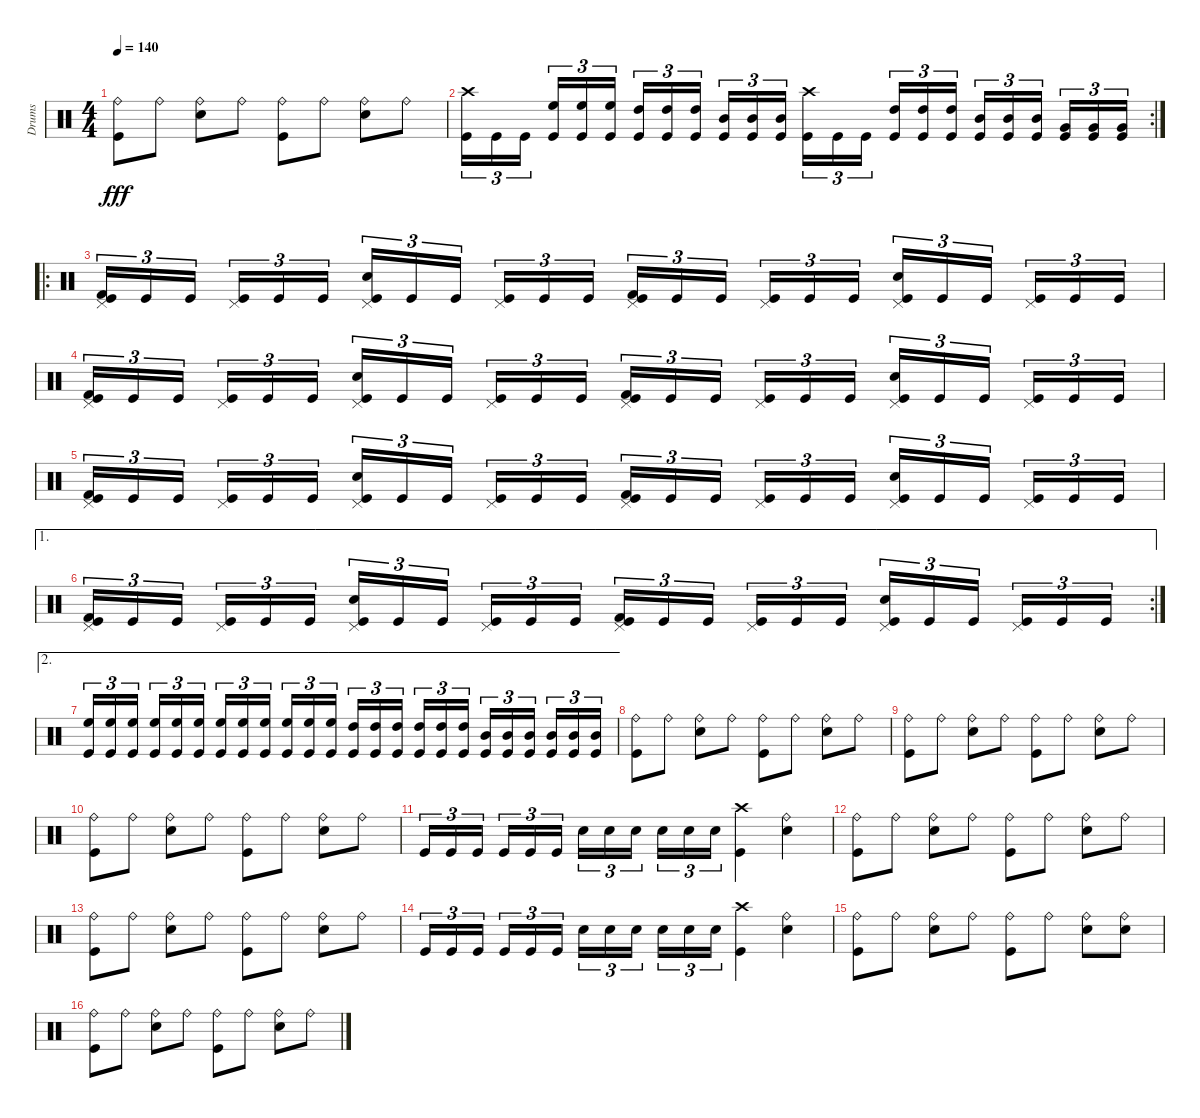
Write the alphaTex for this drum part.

\track ("Drums" "Drums") {instrument percussion}
\staff {score}
\articulation defaults
\ts (4 4)
\tempo 140
\clef neutral
\ks c
("Ride (bell)" "Kick (hit)").8{dy fff} "Ride (bell)".8 ("Ride (bell)" "Snare (hit) 2").8 "Ride (bell)".8 ("Ride (bell)" "Kick (hit)").8 "Ride (bell)".8 ("Ride (bell)" "Snare (hit) 2").8 "Ride (bell)".8 |
\rc 2
("Kick (hit)" "Crash high (hit)").16{tu (3 2)} "Kick (hit)".16{tu (3 2)} "Kick (hit)".16{tu (3 2)} ("Kick (hit)" "High Floor Tom (hit)").16{tu (3 2)} ("Kick (hit)" "High Floor Tom (hit)").16{tu (3 2)} ("Kick (hit)" "High Floor Tom (hit)").16{tu (3 2)} ("Kick (hit)" "High Tom (hit)").16{tu (3 2)} ("Kick (hit)" "High Tom (hit)").16{tu (3 2)} ("Kick (hit)" "High Tom (hit)").16{tu (3 2)} ("Kick (hit)" "Mid Tom (hit)").16{tu (3 2)} ("Kick (hit)" "Mid Tom (hit)").16{tu (3 2)} ("Kick (hit)" "Mid Tom (hit)").16{tu (3 2)} ("Kick (hit)" "Crash high (hit)").16{tu (3 2)} "Kick (hit)".16{tu (3 2)} "Kick (hit)".16{tu (3 2)} ("Kick (hit)" "High Tom (hit)").16{tu (3 2)} ("Kick (hit)" "High Tom (hit)").16{tu (3 2)} ("Kick (hit)" "High Tom (hit)").16{tu (3 2)} ("Kick (hit)" "Mid Tom (hit)").16{tu (3 2)} ("Kick (hit)" "Mid Tom (hit)").16{tu (3 2)} ("Kick (hit)" "Mid Tom (hit)").16{tu (3 2)} ("Kick (hit)" "Very Low Tom (hit)").16{tu (3 2)} ("Kick (hit)" "Very Low Tom (hit)").16{tu (3 2)} ("Kick (hit)" "Very Low Tom (hit)").16{tu (3 2)} |
\ro
("Kick (hit)" "Kick (hit) 2" "Pedal Hi-Hat (hit)").16{tu (3 2)} "Kick (hit)".16{tu (3 2)} "Kick (hit)".16{tu (3 2)} ("Kick (hit)" "Pedal Hi-Hat (hit)").16{tu (3 2)} "Kick (hit)".16{tu (3 2)} "Kick (hit)".16{tu (3 2)} ("Kick (hit)" "Snare (hit) 2" "Pedal Hi-Hat (hit)").16{tu (3 2)} "Kick (hit)".16{tu (3 2)} "Kick (hit)".16{tu (3 2)} ("Kick (hit)" "Pedal Hi-Hat (hit)").16{tu (3 2)} "Kick (hit)".16{tu (3 2)} "Kick (hit)".16{tu (3 2)} ("Kick (hit)" "Kick (hit) 2" "Pedal Hi-Hat (hit)").16{tu (3 2)} "Kick (hit)".16{tu (3 2)} "Kick (hit)".16{tu (3 2)} ("Kick (hit)" "Pedal Hi-Hat (hit)").16{tu (3 2)} "Kick (hit)".16{tu (3 2)} "Kick (hit)".16{tu (3 2)} ("Kick (hit)" "Snare (hit) 2" "Pedal Hi-Hat (hit)").16{tu (3 2)} "Kick (hit)".16{tu (3 2)} "Kick (hit)".16{tu (3 2)} ("Kick (hit)" "Pedal Hi-Hat (hit)").16{tu (3 2)} "Kick (hit)".16{tu (3 2)} "Kick (hit)".16{tu (3 2)} |
("Kick (hit)" "Kick (hit) 2" "Pedal Hi-Hat (hit)").16{tu (3 2)} "Kick (hit)".16{tu (3 2)} "Kick (hit)".16{tu (3 2)} ("Kick (hit)" "Pedal Hi-Hat (hit)").16{tu (3 2)} "Kick (hit)".16{tu (3 2)} "Kick (hit)".16{tu (3 2)} ("Kick (hit)" "Snare (hit) 2" "Pedal Hi-Hat (hit)").16{tu (3 2)} "Kick (hit)".16{tu (3 2)} "Kick (hit)".16{tu (3 2)} ("Kick (hit)" "Pedal Hi-Hat (hit)").16{tu (3 2)} "Kick (hit)".16{tu (3 2)} "Kick (hit)".16{tu (3 2)} ("Kick (hit)" "Kick (hit) 2" "Pedal Hi-Hat (hit)").16{tu (3 2)} "Kick (hit)".16{tu (3 2)} "Kick (hit)".16{tu (3 2)} ("Kick (hit)" "Pedal Hi-Hat (hit)").16{tu (3 2)} "Kick (hit)".16{tu (3 2)} "Kick (hit)".16{tu (3 2)} ("Kick (hit)" "Snare (hit) 2" "Pedal Hi-Hat (hit)").16{tu (3 2)} "Kick (hit)".16{tu (3 2)} "Kick (hit)".16{tu (3 2)} ("Kick (hit)" "Pedal Hi-Hat (hit)").16{tu (3 2)} "Kick (hit)".16{tu (3 2)} "Kick (hit)".16{tu (3 2)} |
("Kick (hit)" "Kick (hit) 2" "Pedal Hi-Hat (hit)").16{tu (3 2)} "Kick (hit)".16{tu (3 2)} "Kick (hit)".16{tu (3 2)} ("Kick (hit)" "Pedal Hi-Hat (hit)").16{tu (3 2)} "Kick (hit)".16{tu (3 2)} "Kick (hit)".16{tu (3 2)} ("Kick (hit)" "Snare (hit) 2" "Pedal Hi-Hat (hit)").16{tu (3 2)} "Kick (hit)".16{tu (3 2)} "Kick (hit)".16{tu (3 2)} ("Kick (hit)" "Pedal Hi-Hat (hit)").16{tu (3 2)} "Kick (hit)".16{tu (3 2)} "Kick (hit)".16{tu (3 2)} ("Kick (hit)" "Kick (hit) 2" "Pedal Hi-Hat (hit)").16{tu (3 2)} "Kick (hit)".16{tu (3 2)} "Kick (hit)".16{tu (3 2)} ("Kick (hit)" "Pedal Hi-Hat (hit)").16{tu (3 2)} "Kick (hit)".16{tu (3 2)} "Kick (hit)".16{tu (3 2)} ("Kick (hit)" "Snare (hit) 2" "Pedal Hi-Hat (hit)").16{tu (3 2)} "Kick (hit)".16{tu (3 2)} "Kick (hit)".16{tu (3 2)} ("Kick (hit)" "Pedal Hi-Hat (hit)").16{tu (3 2)} "Kick (hit)".16{tu (3 2)} "Kick (hit)".16{tu (3 2)} |
\ae 1
\rc 2
("Kick (hit)" "Kick (hit) 2" "Pedal Hi-Hat (hit)").16{tu (3 2)} "Kick (hit)".16{tu (3 2)} "Kick (hit)".16{tu (3 2)} ("Kick (hit)" "Pedal Hi-Hat (hit)").16{tu (3 2)} "Kick (hit)".16{tu (3 2)} "Kick (hit)".16{tu (3 2)} ("Kick (hit)" "Snare (hit) 2" "Pedal Hi-Hat (hit)").16{tu (3 2)} "Kick (hit)".16{tu (3 2)} "Kick (hit)".16{tu (3 2)} ("Kick (hit)" "Pedal Hi-Hat (hit)").16{tu (3 2)} "Kick (hit)".16{tu (3 2)} "Kick (hit)".16{tu (3 2)} ("Kick (hit)" "Kick (hit) 2" "Pedal Hi-Hat (hit)").16{tu (3 2)} "Kick (hit)".16{tu (3 2)} "Kick (hit)".16{tu (3 2)} ("Kick (hit)" "Pedal Hi-Hat (hit)").16{tu (3 2)} "Kick (hit)".16{tu (3 2)} "Kick (hit)".16{tu (3 2)} ("Kick (hit)" "Snare (hit) 2" "Pedal Hi-Hat (hit)").16{tu (3 2)} "Kick (hit)".16{tu (3 2)} "Kick (hit)".16{tu (3 2)} ("Kick (hit)" "Pedal Hi-Hat (hit)").16{tu (3 2)} "Kick (hit)".16{tu (3 2)} "Kick (hit)".16{tu (3 2)} |
\ae 2
("Kick (hit)" "High Floor Tom (hit)").16{tu (3 2)} ("Kick (hit)" "High Floor Tom (hit)").16{tu (3 2)} ("Kick (hit)" "High Floor Tom (hit)").16{tu (3 2)} ("Kick (hit)" "High Floor Tom (hit)").16{tu (3 2)} ("Kick (hit)" "High Floor Tom (hit)").16{tu (3 2)} ("Kick (hit)" "High Floor Tom (hit)").16{tu (3 2)} ("Kick (hit)" "High Floor Tom (hit)").16{tu (3 2)} ("Kick (hit)" "High Floor Tom (hit)").16{tu (3 2)} ("Kick (hit)" "High Floor Tom (hit)").16{tu (3 2)} ("Kick (hit)" "High Floor Tom (hit)").16{tu (3 2)} ("Kick (hit)" "High Floor Tom (hit)").16{tu (3 2)} ("Kick (hit)" "High Floor Tom (hit)").16{tu (3 2)} ("Kick (hit)" "High Tom (hit)").16{tu (3 2)} ("Kick (hit)" "High Tom (hit)").16{tu (3 2)} ("Kick (hit)" "High Tom (hit)").16{tu (3 2)} ("Kick (hit)" "High Tom (hit)").16{tu (3 2)} ("Kick (hit)" "High Tom (hit)").16{tu (3 2)} ("Kick (hit)" "High Tom (hit)").16{tu (3 2)} ("Kick (hit)" "Mid Tom (hit)").16{tu (3 2)} ("Kick (hit)" "Mid Tom (hit)").16{tu (3 2)} ("Kick (hit)" "Mid Tom (hit)").16{tu (3 2)} ("Kick (hit)" "Mid Tom (hit)").16{tu (3 2)} ("Kick (hit)" "Mid Tom (hit)").16{tu (3 2)} ("Kick (hit)" "Mid Tom (hit)").16{tu (3 2)} |
("Ride (bell)" "Kick (hit)").8 "Ride (bell)".8 ("Ride (bell)" "Snare (hit) 2").8 "Ride (bell)".8 ("Ride (bell)" "Kick (hit)").8 "Ride (bell)".8 ("Ride (bell)" "Snare (hit) 2").8 "Ride (bell)".8 |
("Ride (bell)" "Kick (hit)").8 "Ride (bell)".8 ("Ride (bell)" "Snare (hit) 2").8 "Ride (bell)".8 ("Ride (bell)" "Kick (hit)").8 "Ride (bell)".8 ("Ride (bell)" "Snare (hit) 2").8 "Ride (bell)".8 |
("Ride (bell)" "Kick (hit)").8 "Ride (bell)".8 ("Ride (bell)" "Snare (hit) 2").8 "Ride (bell)".8 ("Ride (bell)" "Kick (hit)").8 "Ride (bell)".8 ("Ride (bell)" "Snare (hit) 2").8 "Ride (bell)".8 |
"Kick (hit)".16{tu (3 2)} "Kick (hit)".16{tu (3 2)} "Kick (hit)".16{tu (3 2)} "Kick (hit)".16{tu (3 2)} "Kick (hit)".16{tu (3 2)} "Kick (hit)".16{tu (3 2)} "Snare (hit) 2".16{tu (3 2)} "Snare (hit) 2".16{tu (3 2)} "Snare (hit) 2".16{tu (3 2)} "Snare (hit) 2".16{tu (3 2)} "Snare (hit) 2".16{tu (3 2)} "Snare (hit) 2".16{tu (3 2)} ("Crash high (hit)" "Kick (hit)").4 ("Ride (bell)" "Snare (hit) 2").4 |
("Ride (bell)" "Kick (hit)").8 "Ride (bell)".8 ("Ride (bell)" "Snare (hit) 2").8 "Ride (bell)".8 ("Ride (bell)" "Kick (hit)").8 "Ride (bell)".8 ("Ride (bell)" "Snare (hit) 2").8 "Ride (bell)".8 |
("Ride (bell)" "Kick (hit)").8 "Ride (bell)".8 ("Ride (bell)" "Snare (hit) 2").8 "Ride (bell)".8 ("Ride (bell)" "Kick (hit)").8 "Ride (bell)".8 ("Ride (bell)" "Snare (hit) 2").8 "Ride (bell)".8 |
"Kick (hit)".16{tu (3 2)} "Kick (hit)".16{tu (3 2)} "Kick (hit)".16{tu (3 2)} "Kick (hit)".16{tu (3 2)} "Kick (hit)".16{tu (3 2)} "Kick (hit)".16{tu (3 2)} "Snare (hit) 2".16{tu (3 2)} "Snare (hit) 2".16{tu (3 2)} "Snare (hit) 2".16{tu (3 2)} "Snare (hit) 2".16{tu (3 2)} "Snare (hit) 2".16{tu (3 2)} "Snare (hit) 2".16{tu (3 2)} ("Crash high (hit)" "Kick (hit)").4 ("Ride (bell)" "Snare (hit) 2").4 |
("Ride (bell)" "Kick (hit)").8 "Ride (bell)".8 ("Ride (bell)" "Snare (hit) 2").8 "Ride (bell)".8 ("Ride (bell)" "Kick (hit)").8 "Ride (bell)".8 ("Ride (bell)" "Snare (hit) 2").8 ("Ride (bell)" "Snare (hit) 2").8 |
("Ride (bell)" "Kick (hit)").8 "Ride (bell)".8 ("Ride (bell)" "Snare (hit) 2").8 "Ride (bell)".8 ("Ride (bell)" "Kick (hit)").8 "Ride (bell)".8 ("Ride (bell)" "Snare (hit) 2").8 "Ride (bell)".8
